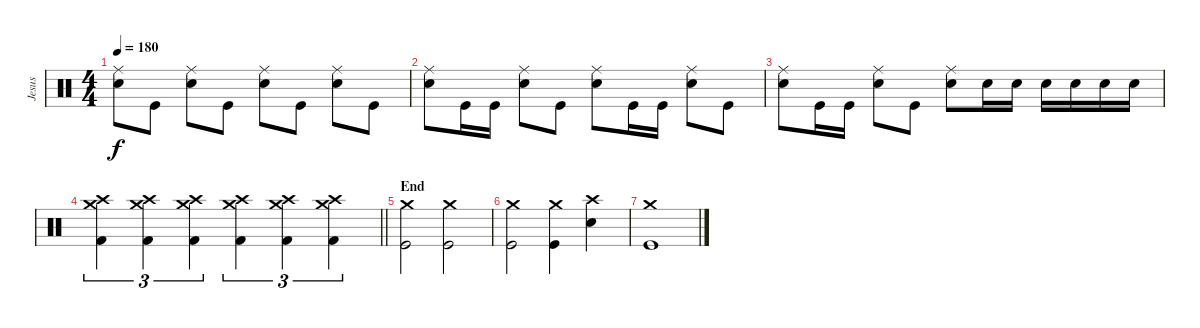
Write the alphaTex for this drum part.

\track ("Jesus" "Jesus") {instrument percussion}
\staff {score}
\articulation defaults
\ts (4 4)
\tempo 180
\clef neutral
\ks c
("Ride (middle)" "Snare (hit) 2").8{dy f} "Kick (hit)".8 ("Ride (middle)" "Snare (hit) 2").8 "Kick (hit)".8 ("Ride (middle)" "Snare (hit) 2").8 "Kick (hit)".8 ("Ride (middle)" "Snare (hit) 2").8 "Kick (hit)".8 |
("Ride (middle)" "Snare (hit) 2").8 "Kick (hit)".16 "Kick (hit)".16 ("Ride (middle)" "Snare (hit) 2").8 "Kick (hit)".8 ("Ride (middle)" "Snare (hit) 2").8 "Kick (hit)".16 "Kick (hit)".16 ("Ride (middle)" "Snare (hit) 2").8 "Kick (hit)".8 |
("Ride (middle)" "Snare (hit) 2").8 "Kick (hit)".16 "Kick (hit)".16 ("Ride (middle)" "Snare (hit) 2").8 "Kick (hit)".8 ("Ride (middle)" "Snare (hit) 2").8 "Snare (hit) 2".16 "Snare (hit) 2".16 "Snare (hit) 2".16 "Snare (hit) 2".16 "Snare (hit) 2".16 "Snare (hit) 2".16 |
\barLineRight lightlight
("Crash high (hit)" "Crash medium (hit)" "Kick (hit) 2").4{tu (3 2)} ("Crash high (hit)" "Crash medium (hit)" "Kick (hit) 2").4{tu (3 2)} ("Crash high (hit)" "Crash medium (hit)" "Kick (hit) 2").4{tu (3 2)} ("Crash high (hit)" "Crash medium (hit)" "Kick (hit) 2").4{tu (3 2)} ("Crash high (hit)" "Crash medium (hit)" "Kick (hit) 2").4{tu (3 2)} ("Crash high (hit)" "Crash medium (hit)" "Kick (hit) 2").4{tu (3 2)} |
\section ("" "End")
("Crash medium (hit)" "Kick (hit)").2 ("Crash medium (hit)" "Kick (hit)").2 |
("Crash medium (hit)" "Kick (hit)").2 ("Crash medium (hit)" "Kick (hit)").4 ("Crash high (hit)" "Snare (hit) 2").4 |
("Crash medium (hit)" "Kick (hit)").1
